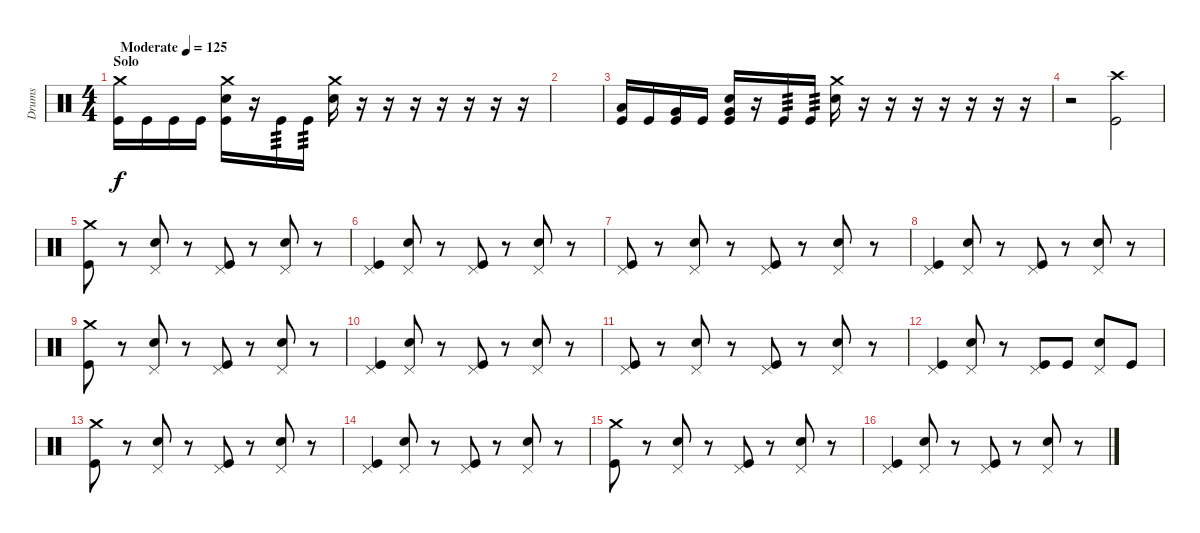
\track ("Drums" "Drums") {instrument percussion}
\staff {score}
\articulation defaults
\ts (4 4)
\section ("" "Solo")
\tempo (125 "Moderate")
\clef neutral
\ks c
("Crash medium (hit)" "Kick (hit)").16{dy f} "Kick (hit)".16 "Kick (hit)".16 "Kick (hit)".16 ("Crash medium (hit)" "Electric Snare (hit)" "Kick (hit)").16 r.16 "Kick (hit)".16{tp 3} "Kick (hit)".16{tp 3} ("Crash medium (hit)" "Electric Snare (hit)").16 r.16 r.16 r.16 r.16 r.16 r.16 r.16 |
|
("Low Tom (hit)" "Kick (hit)").16 "Kick (hit)".16 ("Very Low Tom (hit)" "Kick (hit)").16 "Kick (hit)".16 ("Very Low Tom (hit)" "Electric Snare (hit)" "Kick (hit)").16 r.16 "Kick (hit)".16{tp 3} "Kick (hit)".16{tp 3} ("Crash medium (hit)" "Electric Snare (hit)").16 r.16 r.16 r.16 r.16 r.16 r.16 r.16 |
r.2 ("Crash high (hit)" "Kick (hit)").2 |
("Crash medium (hit)" "Kick (hit)").8 r.8 ("Pedal Hi-Hat (hit)" "Electric Snare (hit)").8 r.8 ("Pedal Hi-Hat (hit)" "Kick (hit)").8 r.8 ("Pedal Hi-Hat (hit)" "Electric Snare (hit)").8 r.8 |
("Pedal Hi-Hat (hit)" "Kick (hit)").4 ("Pedal Hi-Hat (hit)" "Electric Snare (hit)").8 r.8 ("Pedal Hi-Hat (hit)" "Kick (hit)").8 r.8 ("Pedal Hi-Hat (hit)" "Electric Snare (hit)").8 r.8 |
("Pedal Hi-Hat (hit)" "Kick (hit)").8 r.8 ("Pedal Hi-Hat (hit)" "Electric Snare (hit)").8 r.8 ("Pedal Hi-Hat (hit)" "Kick (hit)").8 r.8 ("Pedal Hi-Hat (hit)" "Electric Snare (hit)").8 r.8 |
("Pedal Hi-Hat (hit)" "Kick (hit)").4 ("Pedal Hi-Hat (hit)" "Electric Snare (hit)").8 r.8 ("Pedal Hi-Hat (hit)" "Kick (hit)").8 r.8 ("Pedal Hi-Hat (hit)" "Electric Snare (hit)").8 r.8 |
("Crash medium (hit)" "Kick (hit)").8 r.8 ("Pedal Hi-Hat (hit)" "Electric Snare (hit)").8 r.8 ("Pedal Hi-Hat (hit)" "Kick (hit)").8 r.8 ("Pedal Hi-Hat (hit)" "Electric Snare (hit)").8 r.8 |
("Pedal Hi-Hat (hit)" "Kick (hit)").4 ("Pedal Hi-Hat (hit)" "Electric Snare (hit)").8 r.8 ("Pedal Hi-Hat (hit)" "Kick (hit)").8 r.8 ("Pedal Hi-Hat (hit)" "Electric Snare (hit)").8 r.8 |
("Pedal Hi-Hat (hit)" "Kick (hit)").8 r.8 ("Pedal Hi-Hat (hit)" "Electric Snare (hit)").8 r.8 ("Pedal Hi-Hat (hit)" "Kick (hit)").8 r.8 ("Pedal Hi-Hat (hit)" "Electric Snare (hit)").8 r.8 |
("Pedal Hi-Hat (hit)" "Kick (hit)").4 ("Pedal Hi-Hat (hit)" "Electric Snare (hit)").8 r.8 ("Pedal Hi-Hat (hit)" "Kick (hit)").8 "Kick (hit)".8 ("Pedal Hi-Hat (hit)" "Electric Snare (hit)").8 "Kick (hit)".8 |
("Crash medium (hit)" "Kick (hit)").8 r.8 ("Pedal Hi-Hat (hit)" "Electric Snare (hit)").8 r.8 ("Pedal Hi-Hat (hit)" "Kick (hit)").8 r.8 ("Pedal Hi-Hat (hit)" "Electric Snare (hit)").8 r.8 |
("Pedal Hi-Hat (hit)" "Kick (hit)").4 ("Pedal Hi-Hat (hit)" "Electric Snare (hit)").8 r.8 ("Pedal Hi-Hat (hit)" "Kick (hit)").8 r.8 ("Pedal Hi-Hat (hit)" "Electric Snare (hit)").8 r.8 |
("Crash medium (hit)" "Kick (hit)").8 r.8 ("Pedal Hi-Hat (hit)" "Electric Snare (hit)").8 r.8 ("Pedal Hi-Hat (hit)" "Kick (hit)").8 r.8 ("Pedal Hi-Hat (hit)" "Electric Snare (hit)").8 r.8 |
("Pedal Hi-Hat (hit)" "Kick (hit)").4 ("Pedal Hi-Hat (hit)" "Electric Snare (hit)").8 r.8 ("Pedal Hi-Hat (hit)" "Kick (hit)").8 r.8 ("Pedal Hi-Hat (hit)" "Electric Snare (hit)").8 r.8
